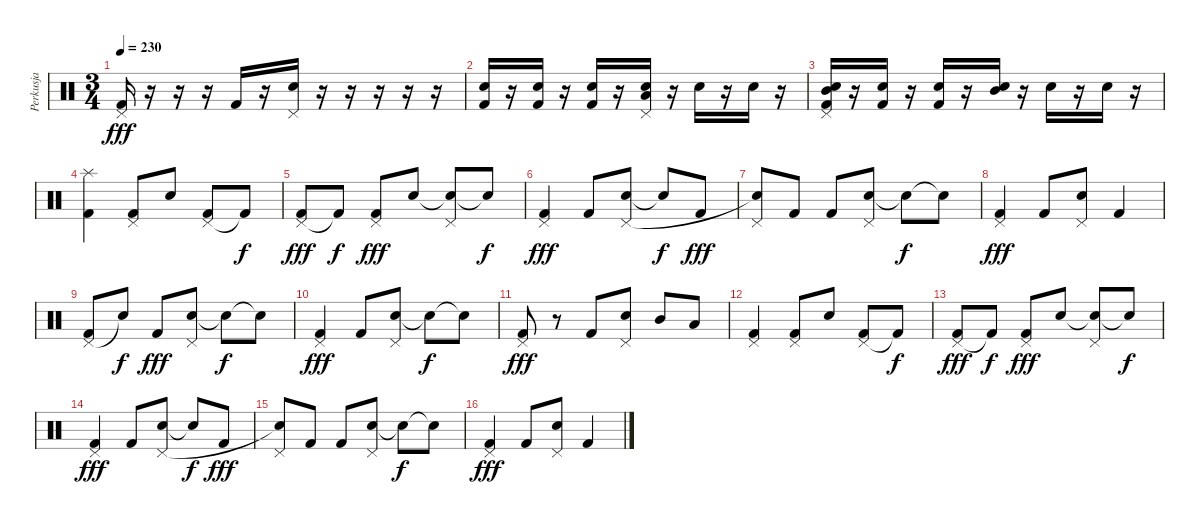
\track ("Perkusja" "Perkusja") {instrument percussion}
\staff {score}
\articulation defaults
\ts (3 4)
\tempo 230
\clef neutral
\ks c
("Pedal Hi-Hat (hit)" "Kick (hit) 2").16{dy fff} r.16 r.16 r.16 "Kick (hit) 2".16 r.16 ("Snare (hit) 2" "Pedal Hi-Hat (hit)").16 r.16 r.16 r.16 r.16 r.16 |
("Snare (hit) 2" "Kick (hit) 2").16 r.16 ("Snare (hit) 2" "Kick (hit) 2").16 r.16 ("Snare (hit) 2" "Kick (hit) 2").16 r.16 ("Snare (hit) 2" "Low Tom (hit)" "Pedal Hi-Hat (hit)").16 r.16 "Snare (hit) 2".16 r.16 "Snare (hit) 2".16 r.16 |
("Mid Tom (hit)" "Snare (hit) 2" "Pedal Hi-Hat (hit)" "Kick (hit) 2").16 r.16 ("Snare (hit) 2" "Kick (hit) 2").16 r.16 ("Snare (hit) 2" "Kick (hit) 2").16 r.16 ("Mid Tom (hit)" "Snare (hit) 2").16 r.16 "Snare (hit) 2".16 r.16 "Snare (hit) 2".16 r.16 |
("Splash (hit)" "Kick (hit) 2").4 ("Pedal Hi-Hat (hit)" "Kick (hit) 2").8 "Snare (hit) 2".8 ("Pedal Hi-Hat (hit)" "Kick (hit) 2").8 "Kick (hit) 2"{t}.8{dy f} |
("Pedal Hi-Hat (hit)" "Kick (hit) 2").8{dy fff} "Kick (hit) 2"{t}.8{dy f} ("Pedal Hi-Hat (hit)" "Kick (hit) 2").8{dy fff} "Snare (hit) 2".8 ("Snare (hit)"{t} "Pedal Hi-Hat (hit)").8 "Snare (hit)"{t}.8{dy f} |
("Pedal Hi-Hat (hit)" "Kick (hit) 2").4{dy fff} "Kick (hit) 2".8 ("Snare (hit) 2" "Pedal Hi-Hat (hit)").8 "Snare (hit)"{t}.8{dy f} "Kick (hit) 2".8{dy fff} |
("Pedal Hi-Hat (hit)" "Snare (hit)"{t}).8 "Kick (hit) 2".8 "Kick (hit) 2".8 ("Snare (hit) 2" "Pedal Hi-Hat (hit)").8 "Snare (hit)"{t}.8{dy f} "Snare (hit)"{t}.8 |
("Pedal Hi-Hat (hit)" "Kick (hit) 2").4{dy fff} "Kick (hit) 2".8 ("Snare (hit) 2" "Pedal Hi-Hat (hit)").8 "Kick (hit) 2".4 |
("Pedal Hi-Hat (hit)" "Kick (hit) 2").8 "Snare (hit)"{t}.8{dy f} "Kick (hit) 2".8{dy fff} ("Snare (hit) 2" "Pedal Hi-Hat (hit)").8 "Snare (hit)"{t}.8{dy f} "Snare (hit)"{t}.8 |
("Pedal Hi-Hat (hit)" "Kick (hit) 2").4{dy fff} "Kick (hit) 2".8 ("Snare (hit) 2" "Pedal Hi-Hat (hit)").8 "Snare (hit)"{t}.8{dy f} "Snare (hit)"{t}.8 |
("Pedal Hi-Hat (hit)" "Kick (hit) 2").8{dy fff} r.8 "Kick (hit) 2".8 ("Snare (hit) 2" "Pedal Hi-Hat (hit)").8 "Mid Tom (hit)".8 "Low Tom (hit)".8 |
("Pedal Hi-Hat (hit)" "Kick (hit) 2").4 ("Pedal Hi-Hat (hit)" "Kick (hit) 2").8 "Snare (hit) 2".8 ("Pedal Hi-Hat (hit)" "Kick (hit) 2").8 "Kick (hit) 2"{t}.8{dy f} |
("Pedal Hi-Hat (hit)" "Kick (hit) 2").8{dy fff} "Kick (hit) 2"{t}.8{dy f} ("Pedal Hi-Hat (hit)" "Kick (hit) 2").8{dy fff} "Snare (hit) 2".8 ("Snare (hit)"{t} "Pedal Hi-Hat (hit)").8 "Snare (hit)"{t}.8{dy f} |
("Pedal Hi-Hat (hit)" "Kick (hit) 2").4{dy fff} "Kick (hit) 2".8 ("Snare (hit) 2" "Pedal Hi-Hat (hit)").8 "Snare (hit)"{t}.8{dy f} "Kick (hit) 2".8{dy fff} |
("Pedal Hi-Hat (hit)" "Snare (hit)"{t}).8 "Kick (hit) 2".8 "Kick (hit) 2".8 ("Snare (hit) 2" "Pedal Hi-Hat (hit)").8 "Snare (hit)"{t}.8{dy f} "Snare (hit)"{t}.8 |
("Pedal Hi-Hat (hit)" "Kick (hit) 2").4{dy fff} "Kick (hit) 2".8 ("Snare (hit) 2" "Pedal Hi-Hat (hit)").8 "Kick (hit) 2".4
